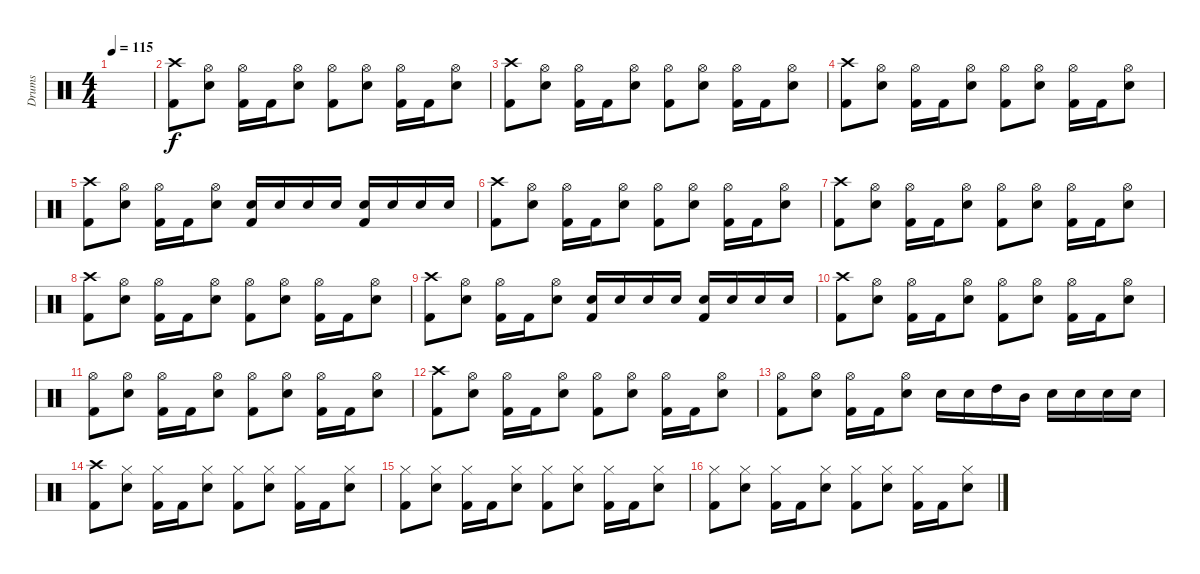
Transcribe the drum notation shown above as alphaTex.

\track ("Drums" "Drums") {instrument percussion}
\staff {score}
\articulation defaults
\ts (4 4)
\tempo 115
\clef neutral
\ks c
|
("Crash high (hit)" "Kick (hit) 2").8 ("Hi-Hat (open)" "Snare (hit) 2").8 ("Hi-Hat (open)" "Kick (hit) 2").16 "Kick (hit) 2".16 ("Hi-Hat (open)" "Snare (hit) 2").8 ("Hi-Hat (open)" "Kick (hit) 2").8 ("Hi-Hat (open)" "Snare (hit) 2").8 ("Hi-Hat (open)" "Kick (hit) 2").16 "Kick (hit) 2".16 ("Hi-Hat (open)" "Snare (hit) 2").8 |
("Crash high (hit)" "Kick (hit) 2").8 ("Hi-Hat (open)" "Snare (hit) 2").8 ("Hi-Hat (open)" "Kick (hit) 2").16 "Kick (hit) 2".16 ("Hi-Hat (open)" "Snare (hit) 2").8 ("Hi-Hat (open)" "Kick (hit) 2").8 ("Hi-Hat (open)" "Snare (hit) 2").8 ("Hi-Hat (open)" "Kick (hit) 2").16 "Kick (hit) 2".16 ("Hi-Hat (open)" "Snare (hit) 2").8 |
("Crash high (hit)" "Kick (hit) 2").8 ("Hi-Hat (open)" "Snare (hit) 2").8 ("Hi-Hat (open)" "Kick (hit) 2").16 "Kick (hit) 2".16 ("Hi-Hat (open)" "Snare (hit) 2").8 ("Hi-Hat (open)" "Kick (hit) 2").8 ("Hi-Hat (open)" "Snare (hit) 2").8 ("Hi-Hat (open)" "Kick (hit) 2").16 "Kick (hit) 2".16 ("Hi-Hat (open)" "Snare (hit) 2").8 |
("Crash high (hit)" "Kick (hit) 2").8 ("Hi-Hat (open)" "Snare (hit) 2").8 ("Hi-Hat (open)" "Kick (hit) 2").16 "Kick (hit) 2".16 ("Hi-Hat (open)" "Snare (hit) 2").8 ("Snare (hit) 2" "Kick (hit) 2").16 "Snare (hit) 2".16 "Snare (hit) 2".16 "Snare (hit) 2".16 ("Snare (hit) 2" "Kick (hit) 2").16 "Snare (hit) 2".16 "Snare (hit) 2".16 "Snare (hit) 2".16 |
("Crash high (hit)" "Kick (hit) 2").8 ("Hi-Hat (open)" "Snare (hit) 2").8 ("Hi-Hat (open)" "Kick (hit) 2").16 "Kick (hit) 2".16 ("Hi-Hat (open)" "Snare (hit) 2").8 ("Hi-Hat (open)" "Kick (hit) 2").8 ("Hi-Hat (open)" "Snare (hit) 2").8 ("Hi-Hat (open)" "Kick (hit) 2").16 "Kick (hit) 2".16 ("Hi-Hat (open)" "Snare (hit) 2").8 |
("Crash high (hit)" "Kick (hit) 2").8 ("Hi-Hat (open)" "Snare (hit) 2").8 ("Hi-Hat (open)" "Kick (hit) 2").16 "Kick (hit) 2".16 ("Hi-Hat (open)" "Snare (hit) 2").8 ("Hi-Hat (open)" "Kick (hit) 2").8 ("Hi-Hat (open)" "Snare (hit) 2").8 ("Hi-Hat (open)" "Kick (hit) 2").16 "Kick (hit) 2".16 ("Hi-Hat (open)" "Snare (hit) 2").8 |
("Crash high (hit)" "Kick (hit) 2").8 ("Hi-Hat (open)" "Snare (hit) 2").8 ("Hi-Hat (open)" "Kick (hit) 2").16 "Kick (hit) 2".16 ("Hi-Hat (open)" "Snare (hit) 2").8 ("Hi-Hat (open)" "Kick (hit) 2").8 ("Hi-Hat (open)" "Snare (hit) 2").8 ("Hi-Hat (open)" "Kick (hit) 2").16 "Kick (hit) 2".16 ("Hi-Hat (open)" "Snare (hit) 2").8 |
("Crash high (hit)" "Kick (hit) 2").8 ("Hi-Hat (open)" "Snare (hit) 2").8 ("Hi-Hat (open)" "Kick (hit) 2").16 "Kick (hit) 2".16 ("Hi-Hat (open)" "Snare (hit) 2").8 ("Snare (hit) 2" "Kick (hit) 2").16 "Snare (hit) 2".16 "Snare (hit) 2".16 "Snare (hit) 2".16 ("Snare (hit) 2" "Kick (hit) 2").16 "Snare (hit) 2".16 "Snare (hit) 2".16 "Snare (hit) 2".16 |
("Crash high (hit)" "Kick (hit) 2").8 ("Hi-Hat (open)" "Snare (hit) 2").8 ("Hi-Hat (open)" "Kick (hit) 2").16 "Kick (hit) 2".16 ("Hi-Hat (open)" "Snare (hit) 2").8 ("Hi-Hat (open)" "Kick (hit) 2").8 ("Hi-Hat (open)" "Snare (hit) 2").8 ("Hi-Hat (open)" "Kick (hit) 2").16 "Kick (hit) 2".16 ("Hi-Hat (open)" "Snare (hit) 2").8 |
("Hi-Hat (open)" "Kick (hit) 2").8 ("Hi-Hat (open)" "Snare (hit) 2").8 ("Hi-Hat (open)" "Kick (hit) 2").16 "Kick (hit) 2".16 ("Hi-Hat (open)" "Snare (hit) 2").8 ("Hi-Hat (open)" "Kick (hit) 2").8 ("Hi-Hat (open)" "Snare (hit) 2").8 ("Hi-Hat (open)" "Kick (hit) 2").16 "Kick (hit) 2".16 ("Hi-Hat (open)" "Snare (hit) 2").8 |
("Crash high (hit)" "Kick (hit) 2").8 ("Hi-Hat (open)" "Snare (hit) 2").8 ("Hi-Hat (open)" "Kick (hit) 2").16 "Kick (hit) 2".16 ("Hi-Hat (open)" "Snare (hit) 2").8 ("Hi-Hat (open)" "Kick (hit) 2").8 ("Hi-Hat (open)" "Snare (hit) 2").8 ("Hi-Hat (open)" "Kick (hit) 2").16 "Kick (hit) 2".16 ("Hi-Hat (open)" "Snare (hit) 2").8 |
("Hi-Hat (open)" "Kick (hit) 2").8 ("Hi-Hat (open)" "Snare (hit) 2").8 ("Hi-Hat (open)" "Kick (hit) 2").16 "Kick (hit) 2".16 ("Hi-Hat (open)" "Snare (hit) 2").8 "Snare (hit) 2".16 "Snare (hit) 2".16 "High Tom (hit)".16 "Mid Tom (hit)".16 "Snare (hit) 2".16 "Snare (hit) 2".16 "Snare (hit) 2".16 "Snare (hit) 2".16 |
("Crash high (hit)" "Kick (hit) 2").8 ("Hi-Hat (closed)" "Snare (hit) 2").8 ("Hi-Hat (closed)" "Kick (hit) 2").16 "Kick (hit) 2".16 ("Hi-Hat (closed)" "Snare (hit) 2").8 ("Hi-Hat (closed)" "Kick (hit) 2").8 ("Hi-Hat (closed)" "Snare (hit) 2").8 ("Hi-Hat (closed)" "Kick (hit) 2").16 "Kick (hit) 2".16 ("Hi-Hat (closed)" "Snare (hit) 2").8 |
("Hi-Hat (closed)" "Kick (hit) 2").8 ("Hi-Hat (closed)" "Snare (hit) 2").8 ("Hi-Hat (closed)" "Kick (hit) 2").16 "Kick (hit) 2".16 ("Hi-Hat (closed)" "Snare (hit) 2").8 ("Hi-Hat (closed)" "Kick (hit) 2").8 ("Hi-Hat (closed)" "Snare (hit) 2").8 ("Hi-Hat (closed)" "Kick (hit) 2").16 "Kick (hit) 2".16 ("Hi-Hat (closed)" "Snare (hit) 2").8 |
("Hi-Hat (closed)" "Kick (hit) 2").8 ("Hi-Hat (closed)" "Snare (hit) 2").8 ("Hi-Hat (closed)" "Kick (hit) 2").16 "Kick (hit) 2".16 ("Hi-Hat (closed)" "Snare (hit) 2").8 ("Hi-Hat (closed)" "Kick (hit) 2").8 ("Hi-Hat (closed)" "Snare (hit) 2").8 ("Hi-Hat (closed)" "Kick (hit) 2").16 "Kick (hit) 2".16 ("Hi-Hat (closed)" "Snare (hit) 2").8
